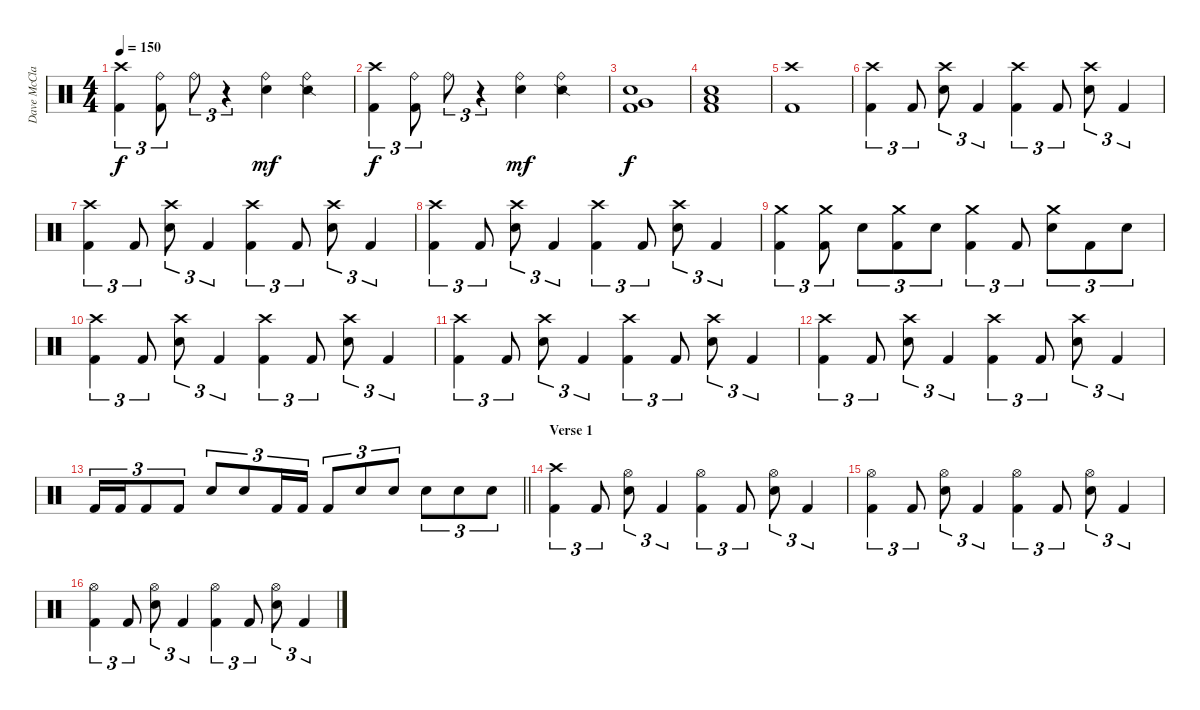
\track ("Dave McClain" "Dave McCla") {instrument percussion}
\staff {score}
\articulation defaults
\ts (4 4)
\tempo 150
\clef neutral
\ks c
("Crash high (hit)" "Kick (hit) 2").4{tu (3 2) dy f} ("Ride (bell)" "Kick (hit) 2").8{tu (3 2)} "Ride (bell)".8{tu (3 2)} r.4{tu (3 2)} ("Ride (bell)" "Snare (hit) 2").4{dy mf} ("Ride (bell)" "Snare (side stick) 2").4 |
("Crash high (hit)" "Kick (hit) 2").4{tu (3 2) dy f} ("Ride (bell)" "Kick (hit) 2").8{tu (3 2)} "Ride (bell)".8{tu (3 2)} r.4{tu (3 2)} ("Ride (bell)" "Snare (hit) 2").4{dy mf} ("Ride (bell)" "Snare (side stick) 2").4 |
("Very Low Tom (hit)" "Snare (hit) 2" "Kick (hit) 2").1{dy f} |
("Low Tom (hit)" "Snare (hit) 2" "Kick (hit) 2").1 |
("Crash high (hit)" "Kick (hit) 2").1 |
("Crash high (hit)" "Kick (hit) 2").4{tu (3 2)} "Kick (hit) 2".8{tu (3 2)} ("Crash high (hit)" "Snare (hit) 2").8{tu (3 2)} "Kick (hit) 2".4{tu (3 2)} ("Crash high (hit)" "Kick (hit) 2").4{tu (3 2)} "Kick (hit) 2".8{tu (3 2)} ("Crash high (hit)" "Snare (hit) 2").8{tu (3 2)} "Kick (hit) 2".4{tu (3 2)} |
("Crash high (hit)" "Kick (hit) 2").4{tu (3 2)} "Kick (hit) 2".8{tu (3 2)} ("Crash high (hit)" "Snare (hit) 2").8{tu (3 2)} "Kick (hit) 2".4{tu (3 2)} ("Crash high (hit)" "Kick (hit) 2").4{tu (3 2)} "Kick (hit) 2".8{tu (3 2)} ("Crash high (hit)" "Snare (hit) 2").8{tu (3 2)} "Kick (hit) 2".4{tu (3 2)} |
("Crash high (hit)" "Kick (hit) 2").4{tu (3 2)} "Kick (hit) 2".8{tu (3 2)} ("Crash high (hit)" "Snare (hit) 2").8{tu (3 2)} "Kick (hit) 2".4{tu (3 2)} ("Crash high (hit)" "Kick (hit) 2").4{tu (3 2)} "Kick (hit) 2".8{tu (3 2)} ("Crash high (hit)" "Snare (hit) 2").8{tu (3 2)} "Kick (hit) 2".4{tu (3 2)} |
("Crash medium (hit)" "Kick (hit) 2").4{tu (3 2)} ("Crash medium (hit)" "Kick (hit) 2").8{tu (3 2)} "Snare (hit) 2".8{tu (3 2)} ("Crash medium (hit)" "Kick (hit) 2").8{tu (3 2)} "Snare (hit) 2".8{tu (3 2)} ("Crash medium (hit)" "Kick (hit) 2").4{tu (3 2)} "Kick (hit) 2".8{tu (3 2)} ("Crash medium (hit)" "Snare (hit) 2").8{tu (3 2)} "Kick (hit) 2".8{tu (3 2)} "Snare (hit) 2".8{tu (3 2)} |
("Crash high (hit)" "Kick (hit) 2").4{tu (3 2)} "Kick (hit) 2".8{tu (3 2)} ("Crash high (hit)" "Snare (hit) 2").8{tu (3 2)} "Kick (hit) 2".4{tu (3 2)} ("Crash high (hit)" "Kick (hit) 2").4{tu (3 2)} "Kick (hit) 2".8{tu (3 2)} ("Crash high (hit)" "Snare (hit) 2").8{tu (3 2)} "Kick (hit) 2".4{tu (3 2)} |
("Crash high (hit)" "Kick (hit) 2").4{tu (3 2)} "Kick (hit) 2".8{tu (3 2)} ("Crash high (hit)" "Snare (hit) 2").8{tu (3 2)} "Kick (hit) 2".4{tu (3 2)} ("Crash high (hit)" "Kick (hit) 2").4{tu (3 2)} "Kick (hit) 2".8{tu (3 2)} ("Crash high (hit)" "Snare (hit) 2").8{tu (3 2)} "Kick (hit) 2".4{tu (3 2)} |
("Crash high (hit)" "Kick (hit) 2").4{tu (3 2)} "Kick (hit) 2".8{tu (3 2)} ("Crash high (hit)" "Snare (hit) 2").8{tu (3 2)} "Kick (hit) 2".4{tu (3 2)} ("Crash high (hit)" "Kick (hit) 2").4{tu (3 2)} "Kick (hit) 2".8{tu (3 2)} ("Crash high (hit)" "Snare (hit) 2").8{tu (3 2)} "Kick (hit) 2".4{tu (3 2)} |
\barLineRight lightlight "Kick (hit) 2".16{tu (3 2)} "Kick (hit) 2".16{tu (3 2)} "Kick (hit) 2".8{tu (3 2)} "Kick (hit) 2".8{tu (3 2)} "Snare (hit) 2".8{tu (3 2)} "Snare (hit) 2".8{tu (3 2)} "Kick (hit) 2".16{tu (3 2)} "Kick (hit) 2".16{tu (3 2)} "Kick (hit) 2".8{tu (3 2)} "Snare (hit) 2".8{tu (3 2)} "Snare (hit) 2".8{tu (3 2)} "Snare (hit) 2".8{tu (3 2)} "Snare (hit) 2".8{tu (3 2)} "Snare (hit) 2".8{tu (3 2)}
|
\section ("" "Verse 1")
("Crash high (hit)" "Kick (hit) 2").4{tu (3 2)} "Kick (hit) 2".8{tu (3 2)} ("Hi-Hat (open)" "Snare (hit) 2").8{tu (3 2)} "Kick (hit) 2".4{tu (3 2)} ("Hi-Hat (open)" "Kick (hit) 2").4{tu (3 2)} "Kick (hit) 2".8{tu (3 2)} ("Hi-Hat (open)" "Snare (hit) 2").8{tu (3 2)} "Kick (hit) 2".4{tu (3 2)} |
("Hi-Hat (open)" "Kick (hit) 2").4{tu (3 2)} "Kick (hit) 2".8{tu (3 2)} ("Hi-Hat (open)" "Snare (hit) 2").8{tu (3 2)} "Kick (hit) 2".4{tu (3 2)} ("Hi-Hat (open)" "Kick (hit) 2").4{tu (3 2)} "Kick (hit) 2".8{tu (3 2)} ("Hi-Hat (open)" "Snare (hit) 2").8{tu (3 2)} "Kick (hit) 2".4{tu (3 2)} |
("Hi-Hat (open)" "Kick (hit) 2").4{tu (3 2)} "Kick (hit) 2".8{tu (3 2)} ("Hi-Hat (open)" "Snare (hit) 2").8{tu (3 2)} "Kick (hit) 2".4{tu (3 2)} ("Hi-Hat (open)" "Kick (hit) 2").4{tu (3 2)} "Kick (hit) 2".8{tu (3 2)} ("Hi-Hat (open)" "Snare (hit) 2").8{tu (3 2)} "Kick (hit) 2".4{tu (3 2)}
